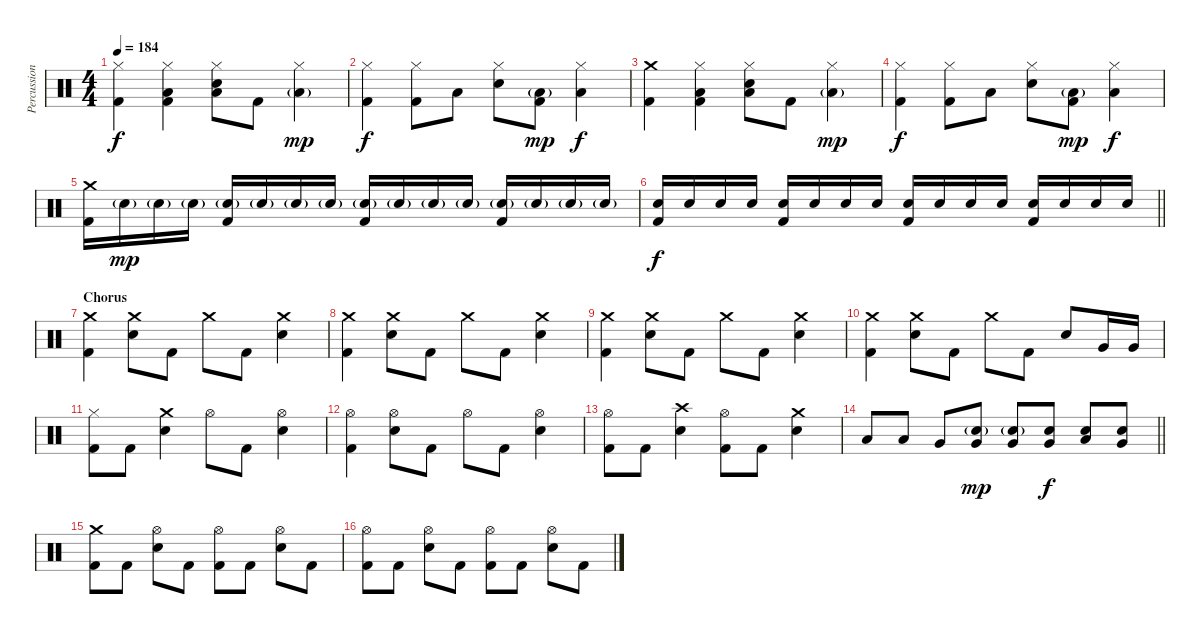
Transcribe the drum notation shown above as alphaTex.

\track ("Percussions" "Percussion") {instrument percussion}
\staff {score}
\articulation defaults
\ts (4 4)
\tempo 184
\clef neutral
\ks c
("Hi-Hat (closed)" "Kick (hit) 2").4{dy f} ("Hi-Hat (closed)" "Low Floor Tom (hit)" "Kick (hit) 2").4 ("Hi-Hat (closed)" "Low Floor Tom (hit)" "Electric Snare (hit)").8 "Kick (hit) 2".8 ("Hi-Hat (closed)" "Low Floor Tom (hit)"{g}).4{dy mp} |
("Hi-Hat (closed)" "Kick (hit) 2").4{dy f} ("Hi-Hat (closed)" "Kick (hit) 2").8 "Low Floor Tom (hit)".8 ("Hi-Hat (closed)" "Electric Snare (hit)").8 ("Low Floor Tom (hit)"{g} "Kick (hit) 2").8{dy mp} ("Hi-Hat (closed)" "Low Floor Tom (hit)").4{dy f} |
("Crash medium (hit)" "Kick (hit) 2").4 ("Hi-Hat (closed)" "Low Floor Tom (hit)" "Kick (hit) 2").4 ("Hi-Hat (closed)" "Low Floor Tom (hit)" "Electric Snare (hit)").8 "Kick (hit) 2".8 ("Hi-Hat (closed)" "Low Floor Tom (hit)"{g}).4{dy mp} |
("Hi-Hat (closed)" "Kick (hit) 2").4{dy f} ("Hi-Hat (closed)" "Kick (hit) 2").8 "Low Floor Tom (hit)".8 ("Hi-Hat (closed)" "Electric Snare (hit)").8 ("Low Floor Tom (hit)"{g} "Kick (hit) 2").8{dy mp} ("Hi-Hat (closed)" "Low Floor Tom (hit)").4{dy f} |
("Crash medium (hit)" "Kick (hit) 2").16 "Electric Snare (hit)"{g}.16{dy mp} "Electric Snare (hit)"{g}.16 "Electric Snare (hit)"{g}.16 ("Electric Snare (hit)"{g} "Kick (hit) 2").16 "Electric Snare (hit)"{g}.16 "Electric Snare (hit)"{g}.16 "Electric Snare (hit)"{g}.16 ("Electric Snare (hit)"{g} "Kick (hit) 2").16 "Electric Snare (hit)"{g}.16 "Electric Snare (hit)"{g}.16 "Electric Snare (hit)"{g}.16 ("Electric Snare (hit)"{g} "Kick (hit) 2").16 "Electric Snare (hit)"{g}.16 "Electric Snare (hit)"{g}.16 "Electric Snare (hit)"{g}.16 |
\barLineRight lightlight
("Electric Snare (hit)" "Kick (hit) 2").16{dy f volume 8} "Electric Snare (hit)".16{volume 12} "Electric Snare (hit)".16 "Electric Snare (hit)".16 ("Electric Snare (hit)" "Kick (hit) 2").16 "Electric Snare (hit)".16 "Electric Snare (hit)".16 "Electric Snare (hit)".16 ("Electric Snare (hit)" "Kick (hit) 2").16 "Electric Snare (hit)".16 "Electric Snare (hit)".16 "Electric Snare (hit)".16 ("Electric Snare (hit)" "Kick (hit) 2").16 "Electric Snare (hit)".16 "Electric Snare (hit)".16 "Electric Snare (hit)".16 |
\section ("" "Chorus")
("Crash medium (hit)" "Kick (hit) 2").4 ("Crash medium (hit)" "Electric Snare (hit)").8 "Kick (hit) 2".8 "Crash medium (hit)".8 "Kick (hit) 2".8 ("Crash medium (hit)" "Electric Snare (hit)").4 |
("Crash medium (hit)" "Kick (hit) 2").4 ("Crash medium (hit)" "Electric Snare (hit)").8 "Kick (hit) 2".8 "Crash medium (hit)".8 "Kick (hit) 2".8 ("Crash medium (hit)" "Electric Snare (hit)").4 |
("Crash medium (hit)" "Kick (hit) 2").4 ("Crash medium (hit)" "Electric Snare (hit)").8 "Kick (hit) 2".8 "Crash medium (hit)".8 "Kick (hit) 2".8 ("Crash medium (hit)" "Electric Snare (hit)").4 |
("Crash medium (hit)" "Kick (hit) 2").4 ("Crash medium (hit)" "Electric Snare (hit)").8 "Kick (hit) 2".8 "Crash medium (hit)".8 "Kick (hit) 2".8 "Electric Snare (hit)".8 "Very Low Tom (hit)".16 "Very Low Tom (hit)".16 |
("Hi-Hat (closed)" "Kick (hit) 2").8 "Kick (hit) 2".8 ("Crash medium (hit)" "Electric Snare (hit)").4 "Hi-Hat (open)".8 "Kick (hit) 2".8 ("Hi-Hat (open)" "Electric Snare (hit)").4 |
("Hi-Hat (open)" "Kick (hit) 2").4 ("Hi-Hat (open)" "Electric Snare (hit)").8 "Kick (hit) 2".8 "Hi-Hat (open)".8 "Kick (hit) 2".8 ("Hi-Hat (open)" "Electric Snare (hit)").4 |
("Hi-Hat (open)" "Kick (hit) 2").8 "Kick (hit) 2".8 ("Crash high (hit)" "Electric Snare (hit)").4 ("Hi-Hat (open)" "Kick (hit) 2").8 "Kick (hit) 2".8 ("Crash medium (hit)" "Electric Snare (hit)").4 |
\barLineRight lightlight "Low Floor Tom (hit)".8 "Low Floor Tom (hit)".8 "Very Low Tom (hit)".8
("Electric Snare (hit)"{g} "Very Low Tom (hit)").8{dy mp} ("Electric Snare (hit)"{g} "Very Low Tom (hit)").8 ("Electric Snare (hit)" "Very Low Tom (hit)").8{dy f} ("Electric Snare (hit)" "Low Tom (hit)").8 ("Electric Snare (hit)" "Very Low Tom (hit)").8 |
("Crash medium (hit)" "Kick (hit) 2").8 "Kick (hit) 2".8 ("Hi-Hat (open)" "Electric Snare (hit)").8 "Kick (hit) 2".8 ("Hi-Hat (open)" "Kick (hit) 2").8 "Kick (hit) 2".8 ("Hi-Hat (open)" "Electric Snare (hit)").8 "Kick (hit) 2".8 |
("Hi-Hat (open)" "Kick (hit) 2").8 "Kick (hit) 2".8 ("Hi-Hat (open)" "Electric Snare (hit)").8 "Kick (hit) 2".8 ("Hi-Hat (open)" "Kick (hit) 2").8 "Kick (hit) 2".8 ("Hi-Hat (open)" "Electric Snare (hit)").8 "Kick (hit) 2".8
